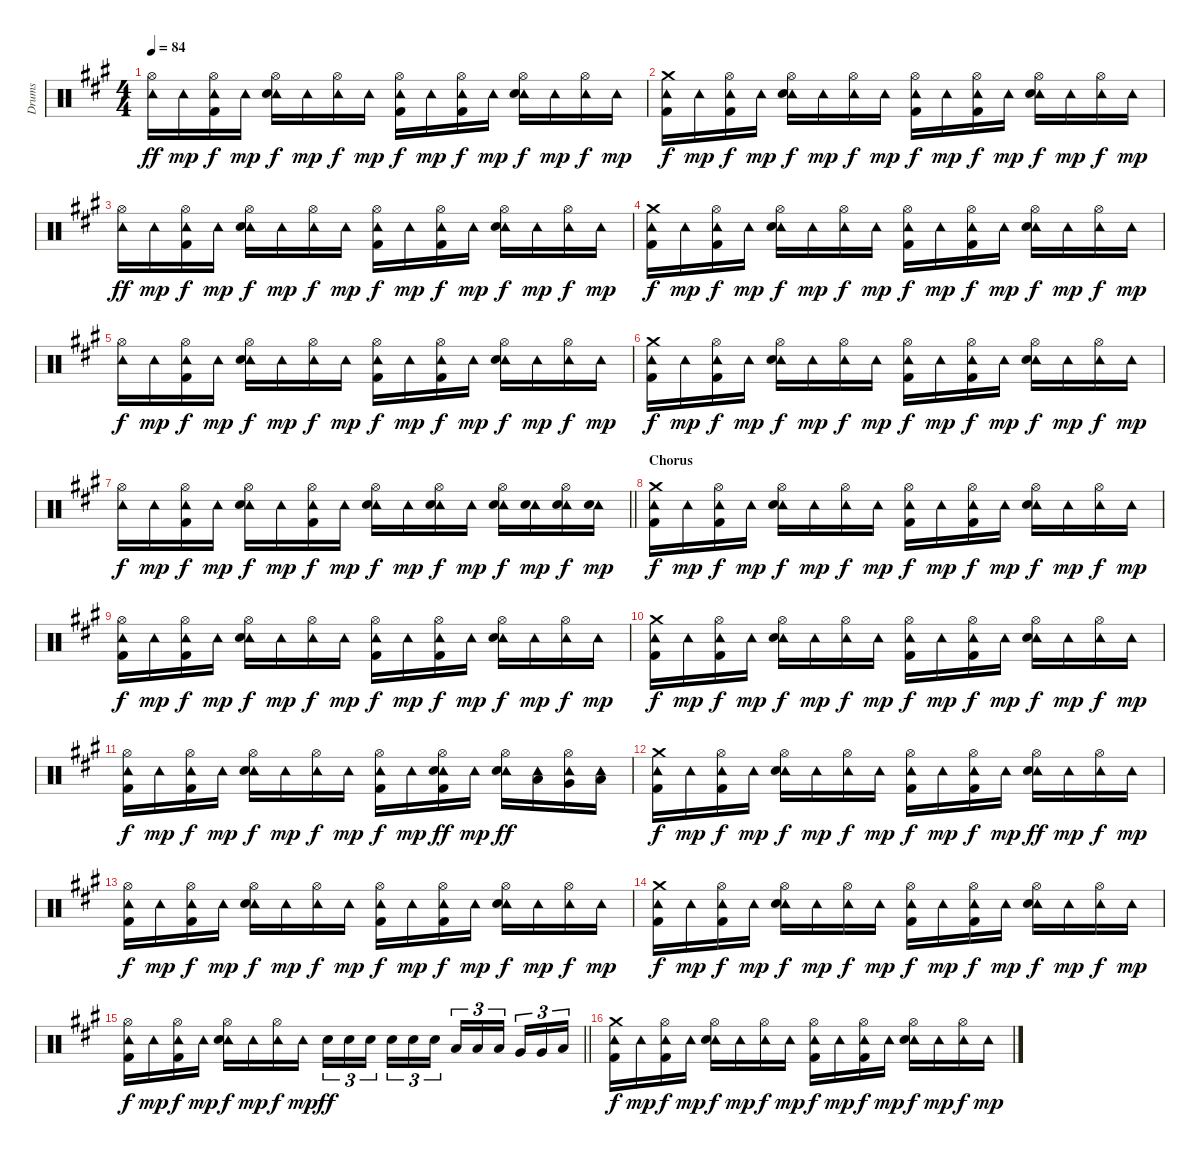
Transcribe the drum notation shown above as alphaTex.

\track ("Drums" "Drums") {instrument percussion}
\staff {score}
\articulation defaults
\ts (4 4)
\tempo 84
\clef neutral
\ks a
("Hi-Hat (open)" "Tambourine (hit)").16{dy ff} "Tambourine (hit)".16{dy mp} ("Hi-Hat (open)" "Tambourine (hit)" "Kick (hit) 2").16{dy f} "Tambourine (hit)".16{dy mp} ("Hi-Hat (open)" "Tambourine (hit)" "Electric Snare (hit)").16{dy f} "Tambourine (hit)".16{dy mp} ("Hi-Hat (open)" "Tambourine (hit)").16{dy f} "Tambourine (hit)".16{dy mp} ("Hi-Hat (open)" "Tambourine (hit)" "Kick (hit) 2").16{dy f} "Tambourine (hit)".16{dy mp} ("Hi-Hat (open)" "Tambourine (hit)" "Kick (hit) 2").16{dy f} "Tambourine (hit)".16{dy mp} ("Hi-Hat (open)" "Tambourine (hit)" "Electric Snare (hit)").16{dy f} "Tambourine (hit)".16{dy mp} ("Hi-Hat (open)" "Tambourine (hit)").16{dy f} "Tambourine (hit)".16{dy mp} |
("Crash medium (hit)" "Tambourine (hit)" "Kick (hit) 2").16{dy f} "Tambourine (hit)".16{dy mp} ("Hi-Hat (open)" "Tambourine (hit)" "Kick (hit) 2").16{dy f} "Tambourine (hit)".16{dy mp} ("Hi-Hat (open)" "Tambourine (hit)" "Electric Snare (hit)").16{dy f} "Tambourine (hit)".16{dy mp} ("Hi-Hat (open)" "Tambourine (hit)").16{dy f} "Tambourine (hit)".16{dy mp} ("Hi-Hat (open)" "Tambourine (hit)" "Kick (hit) 2").16{dy f} "Tambourine (hit)".16{dy mp} ("Hi-Hat (open)" "Tambourine (hit)" "Kick (hit) 2").16{dy f} "Tambourine (hit)".16{dy mp} ("Hi-Hat (open)" "Tambourine (hit)" "Electric Snare (hit)").16{dy f} "Tambourine (hit)".16{dy mp} ("Hi-Hat (open)" "Tambourine (hit)").16{dy f} "Tambourine (hit)".16{dy mp} |
("Hi-Hat (open)" "Tambourine (hit)").16{dy ff} "Tambourine (hit)".16{dy mp} ("Hi-Hat (open)" "Tambourine (hit)" "Kick (hit) 2").16{dy f} "Tambourine (hit)".16{dy mp} ("Hi-Hat (open)" "Tambourine (hit)" "Electric Snare (hit)").16{dy f} "Tambourine (hit)".16{dy mp} ("Hi-Hat (open)" "Tambourine (hit)").16{dy f} "Tambourine (hit)".16{dy mp} ("Hi-Hat (open)" "Tambourine (hit)" "Kick (hit) 2").16{dy f} "Tambourine (hit)".16{dy mp} ("Hi-Hat (open)" "Tambourine (hit)" "Kick (hit) 2").16{dy f} "Tambourine (hit)".16{dy mp} ("Hi-Hat (open)" "Tambourine (hit)" "Electric Snare (hit)").16{dy f} "Tambourine (hit)".16{dy mp} ("Hi-Hat (open)" "Tambourine (hit)").16{dy f} "Tambourine (hit)".16{dy mp} |
("Crash medium (hit)" "Tambourine (hit)" "Kick (hit) 2").16{dy f} "Tambourine (hit)".16{dy mp} ("Hi-Hat (open)" "Tambourine (hit)" "Kick (hit) 2").16{dy f} "Tambourine (hit)".16{dy mp} ("Hi-Hat (open)" "Tambourine (hit)" "Electric Snare (hit)").16{dy f} "Tambourine (hit)".16{dy mp} ("Hi-Hat (open)" "Tambourine (hit)").16{dy f} "Tambourine (hit)".16{dy mp} ("Hi-Hat (open)" "Tambourine (hit)" "Kick (hit) 2").16{dy f} "Tambourine (hit)".16{dy mp} ("Hi-Hat (open)" "Tambourine (hit)" "Kick (hit) 2").16{dy f} "Tambourine (hit)".16{dy mp} ("Hi-Hat (open)" "Tambourine (hit)" "Electric Snare (hit)").16{dy f} "Tambourine (hit)".16{dy mp} ("Hi-Hat (open)" "Tambourine (hit)").16{dy f} "Tambourine (hit)".16{dy mp} |
("Hi-Hat (open)" "Tambourine (hit)").16{dy f} "Tambourine (hit)".16{dy mp} ("Hi-Hat (open)" "Tambourine (hit)" "Kick (hit) 2").16{dy f} "Tambourine (hit)".16{dy mp} ("Hi-Hat (open)" "Tambourine (hit)" "Electric Snare (hit)").16{dy f} "Tambourine (hit)".16{dy mp} ("Hi-Hat (open)" "Tambourine (hit)").16{dy f} "Tambourine (hit)".16{dy mp} ("Hi-Hat (open)" "Tambourine (hit)" "Kick (hit) 2").16{dy f} "Tambourine (hit)".16{dy mp} ("Hi-Hat (open)" "Tambourine (hit)" "Kick (hit) 2").16{dy f} "Tambourine (hit)".16{dy mp} ("Hi-Hat (open)" "Tambourine (hit)" "Electric Snare (hit)").16{dy f} "Tambourine (hit)".16{dy mp} ("Hi-Hat (open)" "Tambourine (hit)").16{dy f} "Tambourine (hit)".16{dy mp} |
("Crash medium (hit)" "Tambourine (hit)" "Kick (hit) 2").16{dy f} "Tambourine (hit)".16{dy mp} ("Hi-Hat (open)" "Tambourine (hit)" "Kick (hit) 2").16{dy f} "Tambourine (hit)".16{dy mp} ("Hi-Hat (open)" "Tambourine (hit)" "Electric Snare (hit)").16{dy f} "Tambourine (hit)".16{dy mp} ("Hi-Hat (open)" "Tambourine (hit)").16{dy f} "Tambourine (hit)".16{dy mp} ("Hi-Hat (open)" "Tambourine (hit)" "Kick (hit) 2").16{dy f} "Tambourine (hit)".16{dy mp} ("Hi-Hat (open)" "Tambourine (hit)" "Kick (hit) 2").16{dy f} "Tambourine (hit)".16{dy mp} ("Hi-Hat (open)" "Tambourine (hit)" "Electric Snare (hit)").16{dy f} "Tambourine (hit)".16{dy mp} ("Hi-Hat (open)" "Tambourine (hit)").16{dy f} "Tambourine (hit)".16{dy mp} |
\barLineRight lightlight
("Hi-Hat (open)" "Tambourine (hit)").16{dy f} "Tambourine (hit)".16{dy mp} ("Hi-Hat (open)" "Tambourine (hit)" "Kick (hit) 2").16{dy f} "Tambourine (hit)".16{dy mp} ("Hi-Hat (open)" "Tambourine (hit)" "Electric Snare (hit)").16{dy f} "Tambourine (hit)".16{dy mp} ("Hi-Hat (open)" "Tambourine (hit)" "Kick (hit) 2").16{dy f} "Tambourine (hit)".16{dy mp} ("Hi-Hat (open)" "Tambourine (hit)" "Electric Snare (hit)").16{dy f} "Tambourine (hit)".16{dy mp} ("Hi-Hat (open)" "Tambourine (hit)" "Electric Snare (hit)").16{dy f} "Tambourine (hit)".16{dy mp} ("Hi-Hat (open)" "Tambourine (hit)" "Electric Snare (hit)").16{dy f} ("Tambourine (hit)" "Electric Snare (hit)").16{dy mp} ("Hi-Hat (open)" "Tambourine (hit)" "Electric Snare (hit)").16{dy f} ("Tambourine (hit)" "Electric Snare (hit)").16{dy mp} |
\section ("" "Chorus")
("Crash medium (hit)" "Tambourine (hit)" "Kick (hit) 2").16{dy f} "Tambourine (hit)".16{dy mp} ("Hi-Hat (open)" "Tambourine (hit)" "Kick (hit) 2").16{dy f} "Tambourine (hit)".16{dy mp} ("Hi-Hat (open)" "Tambourine (hit)" "Electric Snare (hit)").16{dy f} "Tambourine (hit)".16{dy mp} ("Hi-Hat (open)" "Tambourine (hit)").16{dy f} "Tambourine (hit)".16{dy mp} ("Hi-Hat (open)" "Tambourine (hit)" "Kick (hit) 2").16{dy f} "Tambourine (hit)".16{dy mp} ("Hi-Hat (open)" "Tambourine (hit)" "Kick (hit) 2").16{dy f} "Tambourine (hit)".16{dy mp} ("Hi-Hat (open)" "Tambourine (hit)" "Electric Snare (hit)").16{dy f} "Tambourine (hit)".16{dy mp} ("Hi-Hat (open)" "Tambourine (hit)").16{dy f} "Tambourine (hit)".16{dy mp} |
("Hi-Hat (open)" "Tambourine (hit)" "Kick (hit) 2").16{dy f} "Tambourine (hit)".16{dy mp} ("Hi-Hat (open)" "Tambourine (hit)" "Kick (hit) 2").16{dy f} "Tambourine (hit)".16{dy mp} ("Hi-Hat (open)" "Tambourine (hit)" "Electric Snare (hit)").16{dy f} "Tambourine (hit)".16{dy mp} ("Hi-Hat (open)" "Tambourine (hit)").16{dy f} "Tambourine (hit)".16{dy mp} ("Hi-Hat (open)" "Tambourine (hit)" "Kick (hit) 2").16{dy f} "Tambourine (hit)".16{dy mp} ("Hi-Hat (open)" "Tambourine (hit)" "Kick (hit) 2").16{dy f} "Tambourine (hit)".16{dy mp} ("Hi-Hat (open)" "Tambourine (hit)" "Electric Snare (hit)").16{dy f} "Tambourine (hit)".16{dy mp} ("Hi-Hat (open)" "Tambourine (hit)").16{dy f} "Tambourine (hit)".16{dy mp} |
("Crash medium (hit)" "Tambourine (hit)" "Kick (hit) 2").16{dy f} "Tambourine (hit)".16{dy mp} ("Hi-Hat (open)" "Tambourine (hit)" "Kick (hit) 2").16{dy f} "Tambourine (hit)".16{dy mp} ("Hi-Hat (open)" "Tambourine (hit)" "Electric Snare (hit)").16{dy f} "Tambourine (hit)".16{dy mp} ("Hi-Hat (open)" "Tambourine (hit)").16{dy f} "Tambourine (hit)".16{dy mp} ("Hi-Hat (open)" "Tambourine (hit)" "Kick (hit) 2").16{dy f} "Tambourine (hit)".16{dy mp} ("Hi-Hat (open)" "Tambourine (hit)" "Kick (hit) 2").16{dy f} "Tambourine (hit)".16{dy mp} ("Hi-Hat (open)" "Tambourine (hit)" "Electric Snare (hit)").16{dy f} "Tambourine (hit)".16{dy mp} ("Hi-Hat (open)" "Tambourine (hit)").16{dy f} "Tambourine (hit)".16{dy mp} |
("Hi-Hat (open)" "Tambourine (hit)" "Kick (hit) 2").16{dy f} "Tambourine (hit)".16{dy mp} ("Hi-Hat (open)" "Tambourine (hit)" "Kick (hit) 2").16{dy f} "Tambourine (hit)".16{dy mp} ("Hi-Hat (open)" "Tambourine (hit)" "Electric Snare (hit)").16{dy f} "Tambourine (hit)".16{dy mp} ("Hi-Hat (open)" "Tambourine (hit)").16{dy f} "Tambourine (hit)".16{dy mp} ("Hi-Hat (open)" "Tambourine (hit)" "Kick (hit) 2").16{dy f} "Tambourine (hit)".16{dy mp} ("Hi-Hat (open)" "Tambourine (hit)" "Electric Snare (hit)" "Kick (hit) 2").16{dy ff} "Tambourine (hit)".16{dy mp} ("Hi-Hat (open)" "Tambourine (hit)" "Electric Snare (hit)").16{dy ff} ("Tambourine (hit)" "Low Tom (hit)").16 ("Hi-Hat (open)" "Tambourine (hit)" "Very Low Tom (hit)").16 ("Tambourine (hit)" "Low Floor Tom (hit)").16 |
("Crash medium (hit)" "Tambourine (hit)" "Kick (hit) 2").16{dy f} "Tambourine (hit)".16{dy mp} ("Hi-Hat (open)" "Tambourine (hit)" "Kick (hit) 2").16{dy f} "Tambourine (hit)".16{dy mp} ("Hi-Hat (open)" "Tambourine (hit)" "Electric Snare (hit)").16{dy f} "Tambourine (hit)".16{dy mp} ("Hi-Hat (open)" "Tambourine (hit)").16{dy f} "Tambourine (hit)".16{dy mp} ("Hi-Hat (open)" "Tambourine (hit)" "Kick (hit) 2").16{dy f} "Tambourine (hit)".16{dy mp} ("Hi-Hat (open)" "Tambourine (hit)" "Kick (hit) 2").16{dy f} "Tambourine (hit)".16{dy mp} ("Hi-Hat (open)" "Tambourine (hit)" "Electric Snare (hit)").16{dy ff} "Tambourine (hit)".16{dy mp} ("Hi-Hat (open)" "Tambourine (hit)").16{dy f} "Tambourine (hit)".16{dy mp} |
("Hi-Hat (open)" "Tambourine (hit)" "Kick (hit) 2").16{dy f} "Tambourine (hit)".16{dy mp} ("Hi-Hat (open)" "Tambourine (hit)" "Kick (hit) 2").16{dy f} "Tambourine (hit)".16{dy mp} ("Hi-Hat (open)" "Tambourine (hit)" "Electric Snare (hit)").16{dy f} "Tambourine (hit)".16{dy mp} ("Hi-Hat (open)" "Tambourine (hit)").16{dy f} "Tambourine (hit)".16{dy mp} ("Hi-Hat (open)" "Tambourine (hit)" "Kick (hit) 2").16{dy f} "Tambourine (hit)".16{dy mp} ("Hi-Hat (open)" "Tambourine (hit)" "Kick (hit) 2").16{dy f} "Tambourine (hit)".16{dy mp} ("Hi-Hat (open)" "Tambourine (hit)" "Electric Snare (hit)").16{dy f} "Tambourine (hit)".16{dy mp} ("Hi-Hat (open)" "Tambourine (hit)").16{dy f} "Tambourine (hit)".16{dy mp} |
("Crash medium (hit)" "Tambourine (hit)" "Kick (hit) 2").16{dy f} "Tambourine (hit)".16{dy mp} ("Hi-Hat (open)" "Tambourine (hit)" "Kick (hit) 2").16{dy f} "Tambourine (hit)".16{dy mp} ("Hi-Hat (open)" "Tambourine (hit)" "Electric Snare (hit)").16{dy f} "Tambourine (hit)".16{dy mp} ("Hi-Hat (open)" "Tambourine (hit)").16{dy f} "Tambourine (hit)".16{dy mp} ("Hi-Hat (open)" "Tambourine (hit)" "Kick (hit) 2").16{dy f} "Tambourine (hit)".16{dy mp} ("Hi-Hat (open)" "Tambourine (hit)" "Kick (hit) 2").16{dy f} "Tambourine (hit)".16{dy mp} ("Hi-Hat (open)" "Tambourine (hit)" "Electric Snare (hit)").16{dy f} "Tambourine (hit)".16{dy mp} ("Hi-Hat (open)" "Tambourine (hit)").16{dy f} "Tambourine (hit)".16{dy mp} |
\barLineRight lightlight
("Hi-Hat (open)" "Tambourine (hit)" "Kick (hit) 2").16{dy f} "Tambourine (hit)".16{dy mp} ("Hi-Hat (open)" "Tambourine (hit)" "Kick (hit) 2").16{dy f} "Tambourine (hit)".16{dy mp} ("Hi-Hat (open)" "Tambourine (hit)" "Electric Snare (hit)").16{dy f} "Tambourine (hit)".16{dy mp} ("Hi-Hat (open)" "Tambourine (hit)").16{dy f} "Tambourine (hit)".16{dy mp} "Electric Snare (hit)".16{tu (3 2) dy ff} "Electric Snare (hit)".16{tu (3 2)} "Electric Snare (hit)".16{tu (3 2) beam splitsecondary} "Electric Snare (hit)".16{tu (3 2)} "Electric Snare (hit)".16{tu (3 2)} "Electric Snare (hit)".16{tu (3 2)} "Low Tom (hit)".16{tu (3 2)} "Low Tom (hit)".16{tu (3 2)} "Low Tom (hit)".16{tu (3 2) beam splitsecondary} "Very Low Tom (hit)".16{tu (3 2)} "Very Low Tom (hit)".16{tu (3 2)} "Low Floor Tom (hit)".16{tu (3 2)} |
("Crash medium (hit)" "Tambourine (hit)" "Kick (hit) 2").16{dy f} "Tambourine (hit)".16{dy mp} ("Hi-Hat (open)" "Tambourine (hit)" "Kick (hit) 2").16{dy f} "Tambourine (hit)".16{dy mp} ("Hi-Hat (open)" "Tambourine (hit)" "Electric Snare (hit)").16{dy f} "Tambourine (hit)".16{dy mp} ("Hi-Hat (open)" "Tambourine (hit)").16{dy f} "Tambourine (hit)".16{dy mp} ("Hi-Hat (open)" "Tambourine (hit)" "Kick (hit) 2").16{dy f} "Tambourine (hit)".16{dy mp} ("Hi-Hat (open)" "Tambourine (hit)" "Kick (hit) 2").16{dy f} "Tambourine (hit)".16{dy mp} ("Hi-Hat (open)" "Tambourine (hit)" "Electric Snare (hit)").16{dy f} "Tambourine (hit)".16{dy mp} ("Hi-Hat (open)" "Tambourine (hit)").16{dy f} "Tambourine (hit)".16{dy mp}
